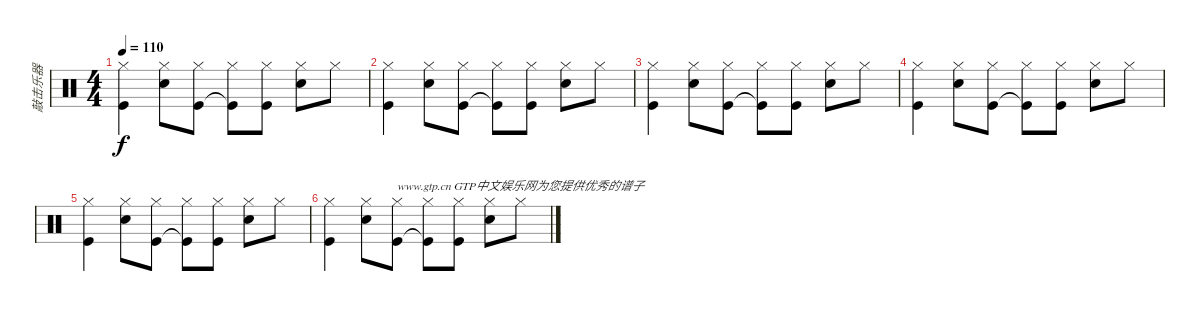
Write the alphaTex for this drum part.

\track ("敲击乐器" "敲击乐器") {instrument percussion}
\staff {score}
\articulation defaults
\ts (4 4)
\tempo 110
\clef neutral
\ks c
("Hi-Hat (closed)" "Kick (hit)").4{dy f} ("Hi-Hat (closed)" "Snare (hit) 2").8 ("Hi-Hat (closed)" "Kick (hit)").8 ("Hi-Hat (closed)" "Kick (hit)"{t}).8 ("Kick (hit)" "Hi-Hat (closed)").8 ("Snare (hit) 2" "Hi-Hat (closed)").8 "Hi-Hat (closed)".8 |
("Hi-Hat (closed)" "Kick (hit)").4 ("Hi-Hat (closed)" "Snare (hit) 2").8 ("Hi-Hat (closed)" "Kick (hit)").8 ("Hi-Hat (closed)" "Kick (hit)"{t}).8 ("Kick (hit)" "Hi-Hat (closed)").8 ("Snare (hit) 2" "Hi-Hat (closed)").8 "Hi-Hat (closed)".8 |
("Hi-Hat (closed)" "Kick (hit)").4 ("Hi-Hat (closed)" "Snare (hit) 2").8 ("Hi-Hat (closed)" "Kick (hit)").8 ("Hi-Hat (closed)" "Kick (hit)"{t}).8 ("Kick (hit)" "Hi-Hat (closed)").8 ("Snare (hit) 2" "Hi-Hat (closed)").8 "Hi-Hat (closed)".8 |
("Hi-Hat (closed)" "Kick (hit)").4 ("Hi-Hat (closed)" "Snare (hit) 2").8 ("Hi-Hat (closed)" "Kick (hit)").8 ("Hi-Hat (closed)" "Kick (hit)"{t}).8 ("Kick (hit)" "Hi-Hat (closed)").8 ("Snare (hit) 2" "Hi-Hat (closed)").8 "Hi-Hat (closed)".8 |
("Hi-Hat (closed)" "Kick (hit)").4 ("Hi-Hat (closed)" "Snare (hit) 2").8 ("Hi-Hat (closed)" "Kick (hit)").8 ("Hi-Hat (closed)" "Kick (hit)"{t}).8 ("Kick (hit)" "Hi-Hat (closed)").8 ("Snare (hit) 2" "Hi-Hat (closed)").8 "Hi-Hat (closed)".8 |
("Hi-Hat (closed)" "Kick (hit)").4 ("Hi-Hat (closed)" "Snare (hit) 2").8 ("Hi-Hat (closed)" "Kick (hit)").8{txt "www.gtp.cn GTP中文娱乐网为您提供优秀的谱子"} ("Hi-Hat (closed)" "Kick (hit)"{t}).8 ("Kick (hit)" "Hi-Hat (closed)").8 ("Snare (hit) 2" "Hi-Hat (closed)").8 "Hi-Hat (closed)".8
